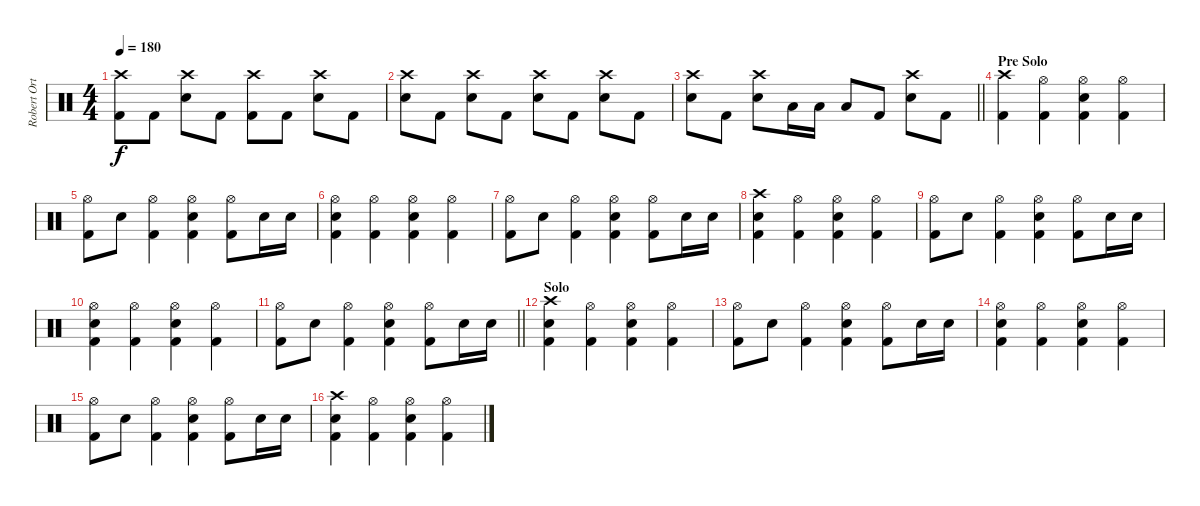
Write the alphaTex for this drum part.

\track ("Robert Ortiz [Drums]" "Robert Ort") {instrument percussion}
\staff {score}
\articulation defaults
\ts (4 4)
\tempo 180
\clef neutral
\ks c
("Crash high (hit)" "Kick (hit) 2").8{dy f} "Kick (hit) 2".8 ("Crash high (hit)" "Electric Snare (hit)").8 "Kick (hit) 2".8 ("Crash high (hit)" "Kick (hit) 2").8 "Kick (hit) 2".8 ("Crash high (hit)" "Electric Snare (hit)").8 "Kick (hit) 2".8 |
("Crash high (hit)" "Electric Snare (hit)").8 "Kick (hit) 2".8 ("Crash high (hit)" "Electric Snare (hit)").8 "Kick (hit) 2".8 ("Crash high (hit)" "Electric Snare (hit)").8 "Kick (hit) 2".8 ("Crash high (hit)" "Electric Snare (hit)").8 "Kick (hit) 2".8 |
\barLineRight lightlight
("Crash high (hit)" "Electric Snare (hit)").8 "Kick (hit) 2".8 ("Crash high (hit)" "Electric Snare (hit)").8 "Low Floor Tom (hit)".16 "Low Floor Tom (hit)".16 "Low Floor Tom (hit)".8 "Kick (hit) 2".8 ("Crash high (hit)" "Electric Snare (hit)").8 "Kick (hit) 2".8 |
\section ("" "Pre Solo")
("Crash high (hit)" "Kick (hit) 2").4 ("Hi-Hat (open)" "Kick (hit) 2").4 ("Hi-Hat (open)" "Electric Snare (hit)" "Kick (hit) 2").4 ("Hi-Hat (open)" "Kick (hit) 2").4 |
("Hi-Hat (open)" "Kick (hit) 2").8 "Electric Snare (hit)".8 ("Hi-Hat (open)" "Kick (hit) 2").4 ("Hi-Hat (open)" "Electric Snare (hit)" "Kick (hit) 2").4 ("Hi-Hat (open)" "Kick (hit) 2").8 "Electric Snare (hit)".16 "Electric Snare (hit)".16 |
("Hi-Hat (open)" "Electric Snare (hit)" "Kick (hit) 2").4 ("Hi-Hat (open)" "Kick (hit) 2").4 ("Hi-Hat (open)" "Electric Snare (hit)" "Kick (hit) 2").4 ("Hi-Hat (open)" "Kick (hit) 2").4 |
("Hi-Hat (open)" "Kick (hit) 2").8 "Electric Snare (hit)".8 ("Hi-Hat (open)" "Kick (hit) 2").4 ("Hi-Hat (open)" "Electric Snare (hit)" "Kick (hit) 2").4 ("Hi-Hat (open)" "Kick (hit) 2").8 "Electric Snare (hit)".16 "Electric Snare (hit)".16 |
("Crash high (hit)" "Electric Snare (hit)" "Kick (hit) 2").4 ("Hi-Hat (open)" "Kick (hit) 2").4 ("Hi-Hat (open)" "Electric Snare (hit)" "Kick (hit) 2").4 ("Hi-Hat (open)" "Kick (hit) 2").4 |
("Hi-Hat (open)" "Kick (hit) 2").8 "Electric Snare (hit)".8 ("Hi-Hat (open)" "Kick (hit) 2").4 ("Hi-Hat (open)" "Electric Snare (hit)" "Kick (hit) 2").4 ("Hi-Hat (open)" "Kick (hit) 2").8 "Electric Snare (hit)".16 "Electric Snare (hit)".16 |
("Hi-Hat (open)" "Electric Snare (hit)" "Kick (hit) 2").4 ("Hi-Hat (open)" "Kick (hit) 2").4 ("Hi-Hat (open)" "Electric Snare (hit)" "Kick (hit) 2").4 ("Hi-Hat (open)" "Kick (hit) 2").4 |
\barLineRight lightlight
("Hi-Hat (open)" "Kick (hit) 2").8 "Electric Snare (hit)".8 ("Hi-Hat (open)" "Kick (hit) 2").4 ("Hi-Hat (open)" "Electric Snare (hit)" "Kick (hit) 2").4 ("Hi-Hat (open)" "Kick (hit) 2").8 "Electric Snare (hit)".16 "Electric Snare (hit)".16 |
\section ("" "Solo")
("Crash high (hit)" "Electric Snare (hit)" "Kick (hit) 2").4 ("Hi-Hat (open)" "Kick (hit) 2").4 ("Hi-Hat (open)" "Electric Snare (hit)" "Kick (hit) 2").4 ("Hi-Hat (open)" "Kick (hit) 2").4 |
("Hi-Hat (open)" "Kick (hit) 2").8 "Electric Snare (hit)".8 ("Hi-Hat (open)" "Kick (hit) 2").4 ("Hi-Hat (open)" "Electric Snare (hit)" "Kick (hit) 2").4 ("Hi-Hat (open)" "Kick (hit) 2").8 "Electric Snare (hit)".16 "Electric Snare (hit)".16 |
("Hi-Hat (open)" "Electric Snare (hit)" "Kick (hit) 2").4 ("Hi-Hat (open)" "Kick (hit) 2").4 ("Hi-Hat (open)" "Electric Snare (hit)" "Kick (hit) 2").4 ("Hi-Hat (open)" "Kick (hit) 2").4 |
("Hi-Hat (open)" "Kick (hit) 2").8 "Electric Snare (hit)".8 ("Hi-Hat (open)" "Kick (hit) 2").4 ("Hi-Hat (open)" "Electric Snare (hit)" "Kick (hit) 2").4 ("Hi-Hat (open)" "Kick (hit) 2").8 "Electric Snare (hit)".16 "Electric Snare (hit)".16 |
("Crash high (hit)" "Electric Snare (hit)" "Kick (hit) 2").4 ("Hi-Hat (open)" "Kick (hit) 2").4 ("Hi-Hat (open)" "Electric Snare (hit)" "Kick (hit) 2").4 ("Hi-Hat (open)" "Kick (hit) 2").4
